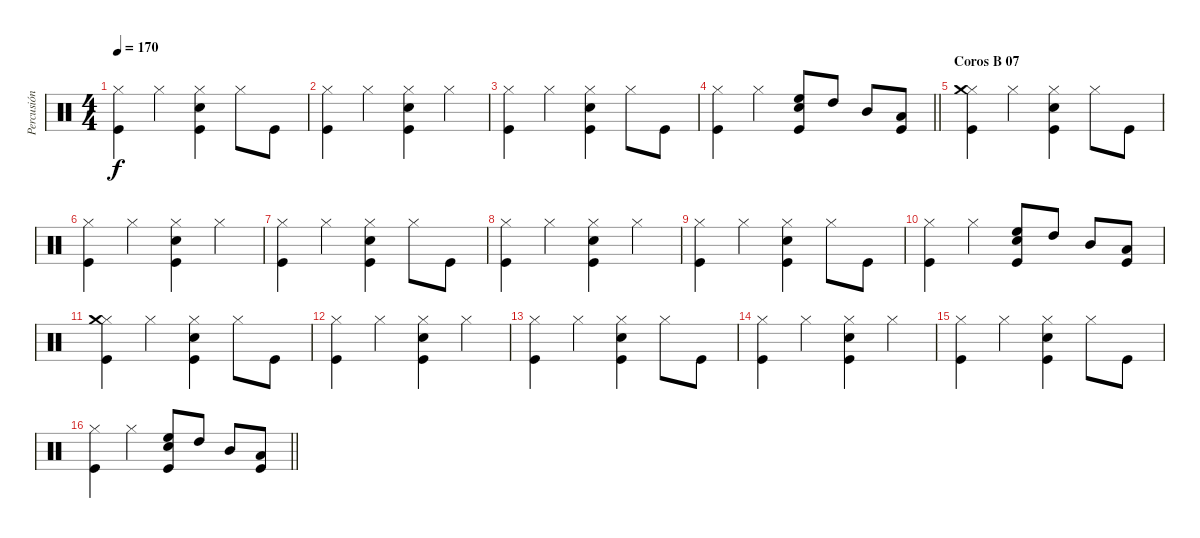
\track ("Percusión" "Percusión") {instrument percussion}
\staff {score}
\articulation defaults
\ts (4 4)
\tempo 170
\clef neutral
\ks c
("Hi-Hat (closed)" "Kick (hit)").4{dy f} "Hi-Hat (closed)".4 ("Hi-Hat (closed)" "Snare (hit) 2" "Kick (hit)").4 "Hi-Hat (closed)".8 "Kick (hit)".8 |
("Hi-Hat (closed)" "Kick (hit)").4 "Hi-Hat (closed)".4 ("Hi-Hat (closed)" "Snare (hit) 2" "Kick (hit)").4 "Hi-Hat (closed)".4 |
("Hi-Hat (closed)" "Kick (hit)").4 "Hi-Hat (closed)".4 ("Hi-Hat (closed)" "Snare (hit) 2" "Kick (hit)").4 "Hi-Hat (closed)".8 "Kick (hit)".8 |
\barLineRight lightlight
("Hi-Hat (closed)" "Kick (hit)").4 "Hi-Hat (closed)".4 ("High Floor Tom (hit)" "Snare (hit) 2" "Kick (hit)").8 "High Tom (hit)".8 "Mid Tom (hit)".8 ("Low Tom (hit)" "Kick (hit)").8 |
\section ("" "Coros B 07")
("Hi-Hat (closed)" "Crash medium (hit)" "Kick (hit)").4 "Hi-Hat (closed)".4 ("Hi-Hat (closed)" "Snare (hit) 2" "Kick (hit)").4 "Hi-Hat (closed)".8 "Kick (hit)".8 |
("Hi-Hat (closed)" "Kick (hit)").4 "Hi-Hat (closed)".4 ("Hi-Hat (closed)" "Snare (hit) 2" "Kick (hit)").4 "Hi-Hat (closed)".4 |
("Hi-Hat (closed)" "Kick (hit)").4 "Hi-Hat (closed)".4 ("Hi-Hat (closed)" "Snare (hit) 2" "Kick (hit)").4 "Hi-Hat (closed)".8 "Kick (hit)".8 |
("Hi-Hat (closed)" "Kick (hit)").4 "Hi-Hat (closed)".4 ("Hi-Hat (closed)" "Snare (hit) 2" "Kick (hit)").4 "Hi-Hat (closed)".4 |
("Hi-Hat (closed)" "Kick (hit)").4 "Hi-Hat (closed)".4 ("Hi-Hat (closed)" "Snare (hit) 2" "Kick (hit)").4 "Hi-Hat (closed)".8 "Kick (hit)".8 |
("Hi-Hat (closed)" "Kick (hit)").4 "Hi-Hat (closed)".4 ("High Floor Tom (hit)" "Snare (hit) 2" "Kick (hit)").8 "High Tom (hit)".8 "Mid Tom (hit)".8 ("Low Tom (hit)" "Kick (hit)").8 |
("Hi-Hat (closed)" "Crash medium (hit)" "Kick (hit)").4 "Hi-Hat (closed)".4 ("Hi-Hat (closed)" "Snare (hit) 2" "Kick (hit)").4 "Hi-Hat (closed)".8 "Kick (hit)".8 |
("Hi-Hat (closed)" "Kick (hit)").4 "Hi-Hat (closed)".4 ("Hi-Hat (closed)" "Snare (hit) 2" "Kick (hit)").4 "Hi-Hat (closed)".4 |
("Hi-Hat (closed)" "Kick (hit)").4 "Hi-Hat (closed)".4 ("Hi-Hat (closed)" "Snare (hit) 2" "Kick (hit)").4 "Hi-Hat (closed)".8 "Kick (hit)".8 |
("Hi-Hat (closed)" "Kick (hit)").4 "Hi-Hat (closed)".4 ("Hi-Hat (closed)" "Snare (hit) 2" "Kick (hit)").4 "Hi-Hat (closed)".4 |
("Hi-Hat (closed)" "Kick (hit)").4 "Hi-Hat (closed)".4 ("Hi-Hat (closed)" "Snare (hit) 2" "Kick (hit)").4 "Hi-Hat (closed)".8 "Kick (hit)".8 |
\barLineRight lightlight
("Hi-Hat (closed)" "Kick (hit)").4 "Hi-Hat (closed)".4 ("High Floor Tom (hit)" "Snare (hit) 2" "Kick (hit)").8 "High Tom (hit)".8 "Mid Tom (hit)".8 ("Low Tom (hit)" "Kick (hit)").8
